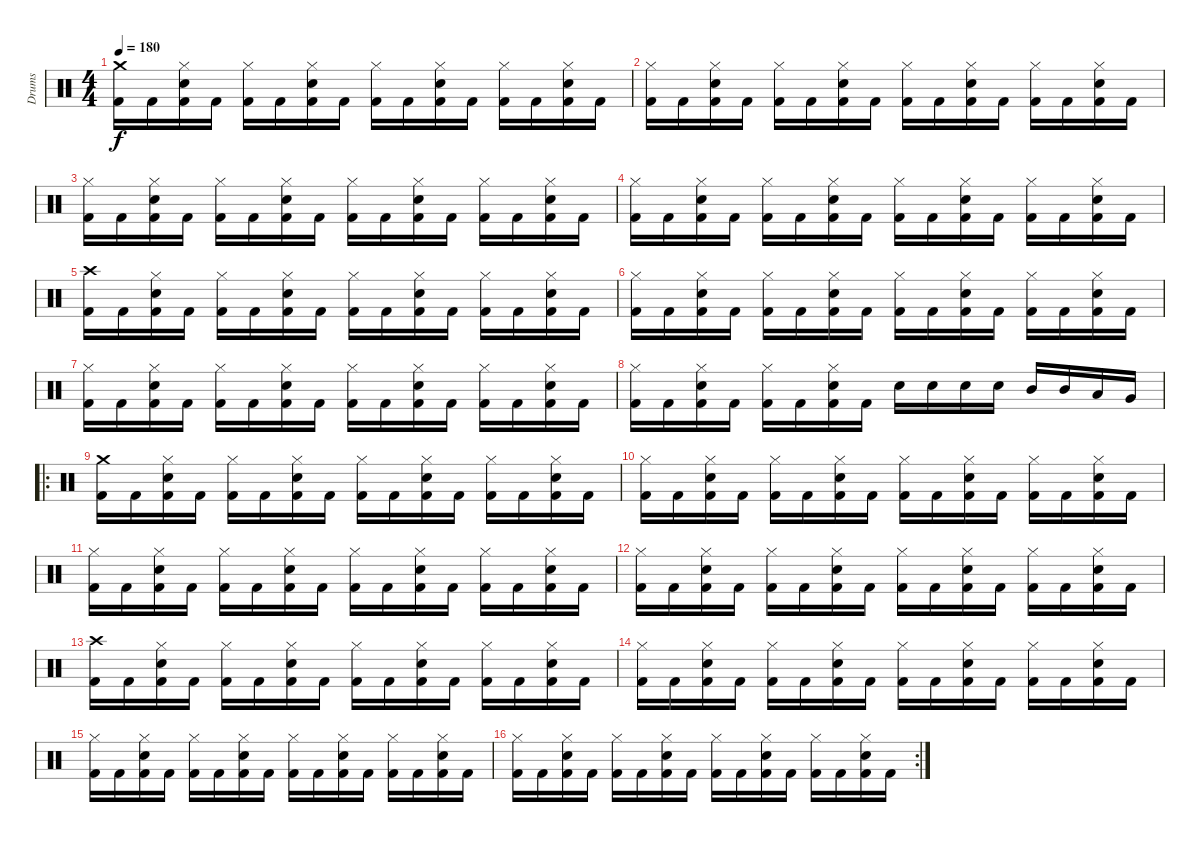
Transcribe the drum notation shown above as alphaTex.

\track ("Drums" "Drums") {instrument percussion}
\staff {score}
\articulation defaults
\ts (4 4)
\tempo 180
\clef neutral
\ks c
("Kick (hit) 2" "Crash medium (hit)").16{dy f} "Kick (hit) 2".16 ("Kick (hit) 2" "Hi-Hat (closed)" "Snare (hit) 2").16 "Kick (hit) 2".16 ("Kick (hit) 2" "Hi-Hat (closed)").16 "Kick (hit) 2".16 ("Kick (hit) 2" "Hi-Hat (closed)" "Snare (hit) 2").16 "Kick (hit) 2".16 ("Kick (hit) 2" "Hi-Hat (closed)").16 "Kick (hit) 2".16 ("Kick (hit) 2" "Hi-Hat (closed)" "Snare (hit) 2").16 "Kick (hit) 2".16 ("Kick (hit) 2" "Hi-Hat (closed)").16 "Kick (hit) 2".16 ("Kick (hit) 2" "Hi-Hat (closed)" "Snare (hit) 2").16 "Kick (hit) 2".16 |
("Kick (hit) 2" "Hi-Hat (closed)").16 "Kick (hit) 2".16 ("Kick (hit) 2" "Hi-Hat (closed)" "Snare (hit) 2").16 "Kick (hit) 2".16 ("Kick (hit) 2" "Hi-Hat (closed)").16 "Kick (hit) 2".16 ("Kick (hit) 2" "Hi-Hat (closed)" "Snare (hit) 2").16 "Kick (hit) 2".16 ("Kick (hit) 2" "Hi-Hat (closed)").16 "Kick (hit) 2".16 ("Kick (hit) 2" "Hi-Hat (closed)" "Snare (hit) 2").16 "Kick (hit) 2".16 ("Kick (hit) 2" "Hi-Hat (closed)").16 "Kick (hit) 2".16 ("Kick (hit) 2" "Hi-Hat (closed)" "Snare (hit) 2").16 "Kick (hit) 2".16 |
("Kick (hit) 2" "Hi-Hat (closed)").16 "Kick (hit) 2".16 ("Kick (hit) 2" "Hi-Hat (closed)" "Snare (hit) 2").16 "Kick (hit) 2".16 ("Kick (hit) 2" "Hi-Hat (closed)").16 "Kick (hit) 2".16 ("Kick (hit) 2" "Hi-Hat (closed)" "Snare (hit) 2").16 "Kick (hit) 2".16 ("Kick (hit) 2" "Hi-Hat (closed)").16 "Kick (hit) 2".16 ("Kick (hit) 2" "Hi-Hat (closed)" "Snare (hit) 2").16 "Kick (hit) 2".16 ("Kick (hit) 2" "Hi-Hat (closed)").16 "Kick (hit) 2".16 ("Kick (hit) 2" "Hi-Hat (closed)" "Snare (hit) 2").16 "Kick (hit) 2".16 |
("Kick (hit) 2" "Hi-Hat (closed)").16 "Kick (hit) 2".16 ("Kick (hit) 2" "Hi-Hat (closed)" "Snare (hit) 2").16 "Kick (hit) 2".16 ("Kick (hit) 2" "Hi-Hat (closed)").16 "Kick (hit) 2".16 ("Kick (hit) 2" "Hi-Hat (closed)" "Snare (hit) 2").16 "Kick (hit) 2".16 ("Kick (hit) 2" "Hi-Hat (closed)").16 "Kick (hit) 2".16 ("Kick (hit) 2" "Hi-Hat (closed)" "Snare (hit) 2").16 "Kick (hit) 2".16 ("Kick (hit) 2" "Hi-Hat (closed)").16 "Kick (hit) 2".16 ("Kick (hit) 2" "Hi-Hat (closed)" "Snare (hit) 2").16 "Kick (hit) 2".16 |
("Kick (hit) 2" "Crash high (hit)").16 "Kick (hit) 2".16 ("Kick (hit) 2" "Hi-Hat (closed)" "Snare (hit) 2").16 "Kick (hit) 2".16 ("Kick (hit) 2" "Hi-Hat (closed)").16 "Kick (hit) 2".16 ("Kick (hit) 2" "Hi-Hat (closed)" "Snare (hit) 2").16 "Kick (hit) 2".16 ("Kick (hit) 2" "Hi-Hat (closed)").16 "Kick (hit) 2".16 ("Kick (hit) 2" "Hi-Hat (closed)" "Snare (hit) 2").16 "Kick (hit) 2".16 ("Kick (hit) 2" "Hi-Hat (closed)").16 "Kick (hit) 2".16 ("Kick (hit) 2" "Hi-Hat (closed)" "Snare (hit) 2").16 "Kick (hit) 2".16 |
("Kick (hit) 2" "Hi-Hat (closed)").16 "Kick (hit) 2".16 ("Kick (hit) 2" "Hi-Hat (closed)" "Snare (hit) 2").16 "Kick (hit) 2".16 ("Kick (hit) 2" "Hi-Hat (closed)").16 "Kick (hit) 2".16 ("Kick (hit) 2" "Hi-Hat (closed)" "Snare (hit) 2").16 "Kick (hit) 2".16 ("Kick (hit) 2" "Hi-Hat (closed)").16 "Kick (hit) 2".16 ("Kick (hit) 2" "Hi-Hat (closed)" "Snare (hit) 2").16 "Kick (hit) 2".16 ("Kick (hit) 2" "Hi-Hat (closed)").16 "Kick (hit) 2".16 ("Kick (hit) 2" "Hi-Hat (closed)" "Snare (hit) 2").16 "Kick (hit) 2".16 |
("Kick (hit) 2" "Hi-Hat (closed)").16 "Kick (hit) 2".16 ("Kick (hit) 2" "Hi-Hat (closed)" "Snare (hit) 2").16 "Kick (hit) 2".16 ("Kick (hit) 2" "Hi-Hat (closed)").16 "Kick (hit) 2".16 ("Kick (hit) 2" "Hi-Hat (closed)" "Snare (hit) 2").16 "Kick (hit) 2".16 ("Kick (hit) 2" "Hi-Hat (closed)").16 "Kick (hit) 2".16 ("Kick (hit) 2" "Hi-Hat (closed)" "Snare (hit) 2").16 "Kick (hit) 2".16 ("Kick (hit) 2" "Hi-Hat (closed)").16 "Kick (hit) 2".16 ("Kick (hit) 2" "Hi-Hat (closed)" "Snare (hit) 2").16 "Kick (hit) 2".16 |
("Kick (hit) 2" "Hi-Hat (closed)").16 "Kick (hit) 2".16 ("Kick (hit) 2" "Hi-Hat (closed)" "Snare (hit) 2").16 "Kick (hit) 2".16 ("Kick (hit) 2" "Hi-Hat (closed)").16 "Kick (hit) 2".16 ("Kick (hit) 2" "Hi-Hat (closed)" "Snare (hit) 2").16 "Kick (hit) 2".16 "Snare (hit) 2".16 "Snare (hit) 2".16 "Snare (hit) 2".16 "Snare (hit) 2".16 "Mid Tom (hit)".16 "Mid Tom (hit)".16 "Low Tom (hit)".16 "Very Low Tom (hit)".16 |
\ro
("Kick (hit) 2" "Crash medium (hit)").16 "Kick (hit) 2".16 ("Kick (hit) 2" "Hi-Hat (closed)" "Snare (hit) 2").16 "Kick (hit) 2".16 ("Kick (hit) 2" "Hi-Hat (closed)").16 "Kick (hit) 2".16 ("Kick (hit) 2" "Hi-Hat (closed)" "Snare (hit) 2").16 "Kick (hit) 2".16 ("Kick (hit) 2" "Hi-Hat (closed)").16 "Kick (hit) 2".16 ("Kick (hit) 2" "Hi-Hat (closed)" "Snare (hit) 2").16 "Kick (hit) 2".16 ("Kick (hit) 2" "Hi-Hat (closed)").16 "Kick (hit) 2".16 ("Kick (hit) 2" "Hi-Hat (closed)" "Snare (hit) 2").16 "Kick (hit) 2".16 |
("Kick (hit) 2" "Hi-Hat (closed)").16 "Kick (hit) 2".16 ("Kick (hit) 2" "Hi-Hat (closed)" "Snare (hit) 2").16 "Kick (hit) 2".16 ("Kick (hit) 2" "Hi-Hat (closed)").16 "Kick (hit) 2".16 ("Kick (hit) 2" "Hi-Hat (closed)" "Snare (hit) 2").16 "Kick (hit) 2".16 ("Kick (hit) 2" "Hi-Hat (closed)").16 "Kick (hit) 2".16 ("Kick (hit) 2" "Hi-Hat (closed)" "Snare (hit) 2").16 "Kick (hit) 2".16 ("Kick (hit) 2" "Hi-Hat (closed)").16 "Kick (hit) 2".16 ("Kick (hit) 2" "Hi-Hat (closed)" "Snare (hit) 2").16 "Kick (hit) 2".16 |
("Kick (hit) 2" "Hi-Hat (closed)").16 "Kick (hit) 2".16 ("Kick (hit) 2" "Hi-Hat (closed)" "Snare (hit) 2").16 "Kick (hit) 2".16 ("Kick (hit) 2" "Hi-Hat (closed)").16 "Kick (hit) 2".16 ("Kick (hit) 2" "Hi-Hat (closed)" "Snare (hit) 2").16 "Kick (hit) 2".16 ("Kick (hit) 2" "Hi-Hat (closed)").16 "Kick (hit) 2".16 ("Kick (hit) 2" "Hi-Hat (closed)" "Snare (hit) 2").16 "Kick (hit) 2".16 ("Kick (hit) 2" "Hi-Hat (closed)").16 "Kick (hit) 2".16 ("Kick (hit) 2" "Hi-Hat (closed)" "Snare (hit) 2").16 "Kick (hit) 2".16 |
("Kick (hit) 2" "Hi-Hat (closed)").16 "Kick (hit) 2".16 ("Kick (hit) 2" "Hi-Hat (closed)" "Snare (hit) 2").16 "Kick (hit) 2".16 ("Kick (hit) 2" "Hi-Hat (closed)").16 "Kick (hit) 2".16 ("Kick (hit) 2" "Hi-Hat (closed)" "Snare (hit) 2").16 "Kick (hit) 2".16 ("Kick (hit) 2" "Hi-Hat (closed)").16 "Kick (hit) 2".16 ("Kick (hit) 2" "Hi-Hat (closed)" "Snare (hit) 2").16 "Kick (hit) 2".16 ("Kick (hit) 2" "Hi-Hat (closed)").16 "Kick (hit) 2".16 ("Kick (hit) 2" "Hi-Hat (closed)" "Snare (hit) 2").16 "Kick (hit) 2".16 |
("Kick (hit) 2" "Crash high (hit)").16 "Kick (hit) 2".16 ("Kick (hit) 2" "Hi-Hat (closed)" "Snare (hit) 2").16 "Kick (hit) 2".16 ("Kick (hit) 2" "Hi-Hat (closed)").16 "Kick (hit) 2".16 ("Kick (hit) 2" "Hi-Hat (closed)" "Snare (hit) 2").16 "Kick (hit) 2".16 ("Kick (hit) 2" "Hi-Hat (closed)").16 "Kick (hit) 2".16 ("Kick (hit) 2" "Hi-Hat (closed)" "Snare (hit) 2").16 "Kick (hit) 2".16 ("Kick (hit) 2" "Hi-Hat (closed)").16 "Kick (hit) 2".16 ("Kick (hit) 2" "Hi-Hat (closed)" "Snare (hit) 2").16 "Kick (hit) 2".16 |
("Kick (hit) 2" "Hi-Hat (closed)").16 "Kick (hit) 2".16 ("Kick (hit) 2" "Hi-Hat (closed)" "Snare (hit) 2").16 "Kick (hit) 2".16 ("Kick (hit) 2" "Hi-Hat (closed)").16 "Kick (hit) 2".16 ("Kick (hit) 2" "Hi-Hat (closed)" "Snare (hit) 2").16 "Kick (hit) 2".16 ("Kick (hit) 2" "Hi-Hat (closed)").16 "Kick (hit) 2".16 ("Kick (hit) 2" "Hi-Hat (closed)" "Snare (hit) 2").16 "Kick (hit) 2".16 ("Kick (hit) 2" "Hi-Hat (closed)").16 "Kick (hit) 2".16 ("Kick (hit) 2" "Hi-Hat (closed)" "Snare (hit) 2").16 "Kick (hit) 2".16 |
("Kick (hit) 2" "Hi-Hat (closed)").16 "Kick (hit) 2".16 ("Kick (hit) 2" "Hi-Hat (closed)" "Snare (hit) 2").16 "Kick (hit) 2".16 ("Kick (hit) 2" "Hi-Hat (closed)").16 "Kick (hit) 2".16 ("Kick (hit) 2" "Hi-Hat (closed)" "Snare (hit) 2").16 "Kick (hit) 2".16 ("Kick (hit) 2" "Hi-Hat (closed)").16 "Kick (hit) 2".16 ("Kick (hit) 2" "Hi-Hat (closed)" "Snare (hit) 2").16 "Kick (hit) 2".16 ("Kick (hit) 2" "Hi-Hat (closed)").16 "Kick (hit) 2".16 ("Kick (hit) 2" "Hi-Hat (closed)" "Snare (hit) 2").16 "Kick (hit) 2".16 |
\rc 2
("Kick (hit) 2" "Hi-Hat (closed)").16 "Kick (hit) 2".16 ("Kick (hit) 2" "Hi-Hat (closed)" "Snare (hit) 2").16 "Kick (hit) 2".16 ("Kick (hit) 2" "Hi-Hat (closed)").16 "Kick (hit) 2".16 ("Kick (hit) 2" "Hi-Hat (closed)" "Snare (hit) 2").16 "Kick (hit) 2".16 ("Kick (hit) 2" "Hi-Hat (closed)").16 "Kick (hit) 2".16 ("Kick (hit) 2" "Hi-Hat (closed)" "Snare (hit) 2").16 "Kick (hit) 2".16 ("Kick (hit) 2" "Hi-Hat (closed)").16 "Kick (hit) 2".16 ("Kick (hit) 2" "Hi-Hat (closed)" "Snare (hit) 2").16 "Kick (hit) 2".16
